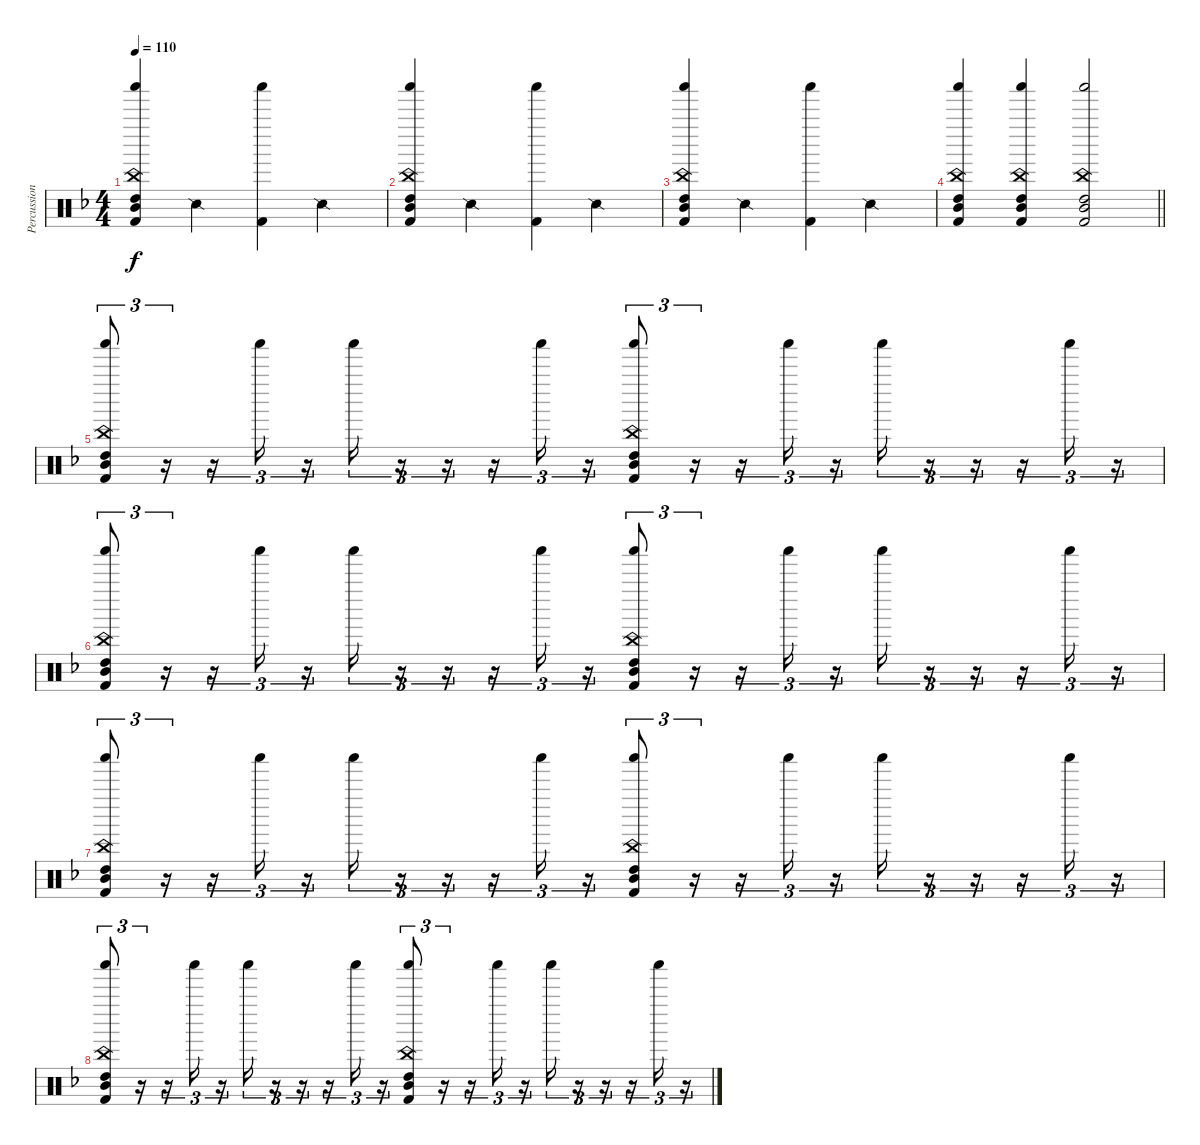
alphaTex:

\track ("Percussion" "Percussion") {instrument percussion}
\staff {score}
\articulation defaults
\ts (4 4)
\tempo 110
\clef neutral
\ks f
("Mid Tom (hit)" "China (hit)" "Shaker (hit)" "High Tom (hit)" "Kick (hit) 2").4{dy f} "Snare (side stick) 2".4 ("Shaker (hit)" "Kick (hit) 2").4 "Snare (side stick) 2".4 |
("Mid Tom (hit)" "China (hit)" "Shaker (hit)" "High Tom (hit)" "Kick (hit) 2").4 "Snare (side stick) 2".4 ("Shaker (hit)" "Kick (hit) 2").4 "Snare (side stick) 2".4 |
("Mid Tom (hit)" "China (hit)" "Shaker (hit)" "High Tom (hit)" "Kick (hit) 2").4 "Snare (side stick) 2".4 ("Shaker (hit)" "Kick (hit) 2").4 "Snare (side stick) 2".4 |
\barLineRight lightlight
("Mid Tom (hit)" "China (hit)" "Shaker (hit)" "High Tom (hit)" "Kick (hit) 2").4 ("Mid Tom (hit)" "China (hit)" "Shaker (hit)" "High Tom (hit)" "Kick (hit) 2").4 ("Mid Tom (hit)" "China (hit)" "Shaker (hit)" "High Tom (hit)" "Kick (hit) 2").2 |
\section ("" "")
("Mid Tom (hit)" "China (hit)" "Shaker (hit)" "High Tom (hit)" "Kick (hit) 2").8{tu (3 2)} r.16{tu (3 2)} r.16{tu (3 2)} "Shaker (hit)".16{tu (3 2)} r.16{tu (3 2)} "Shaker (hit)".16{tu (3 2)} r.16{tu (3 2)} r.16{tu (3 2)} r.16{tu (3 2)} "Shaker (hit)".16{tu (3 2)} r.16{tu (3 2)} ("Mid Tom (hit)" "China (hit)" "Shaker (hit)" "High Tom (hit)" "Kick (hit) 2").8{tu (3 2)} r.16{tu (3 2)} r.16{tu (3 2)} "Shaker (hit)".16{tu (3 2)} r.16{tu (3 2)} "Shaker (hit)".16{tu (3 2)} r.16{tu (3 2)} r.16{tu (3 2)} r.16{tu (3 2)} "Shaker (hit)".16{tu (3 2)} r.16{tu (3 2)} |
("Mid Tom (hit)" "China (hit)" "Shaker (hit)" "High Tom (hit)" "Kick (hit) 2").8{tu (3 2)} r.16{tu (3 2)} r.16{tu (3 2)} "Shaker (hit)".16{tu (3 2)} r.16{tu (3 2)} "Shaker (hit)".16{tu (3 2)} r.16{tu (3 2)} r.16{tu (3 2)} r.16{tu (3 2)} "Shaker (hit)".16{tu (3 2)} r.16{tu (3 2)} ("Mid Tom (hit)" "China (hit)" "Shaker (hit)" "High Tom (hit)" "Kick (hit) 2").8{tu (3 2)} r.16{tu (3 2)} r.16{tu (3 2)} "Shaker (hit)".16{tu (3 2)} r.16{tu (3 2)} "Shaker (hit)".16{tu (3 2)} r.16{tu (3 2)} r.16{tu (3 2)} r.16{tu (3 2)} "Shaker (hit)".16{tu (3 2)} r.16{tu (3 2)} |
("Mid Tom (hit)" "China (hit)" "Shaker (hit)" "High Tom (hit)" "Kick (hit) 2").8{tu (3 2)} r.16{tu (3 2)} r.16{tu (3 2)} "Shaker (hit)".16{tu (3 2)} r.16{tu (3 2)} "Shaker (hit)".16{tu (3 2)} r.16{tu (3 2)} r.16{tu (3 2)} r.16{tu (3 2)} "Shaker (hit)".16{tu (3 2)} r.16{tu (3 2)} ("Mid Tom (hit)" "China (hit)" "Shaker (hit)" "High Tom (hit)" "Kick (hit) 2").8{tu (3 2)} r.16{tu (3 2)} r.16{tu (3 2)} "Shaker (hit)".16{tu (3 2)} r.16{tu (3 2)} "Shaker (hit)".16{tu (3 2)} r.16{tu (3 2)} r.16{tu (3 2)} r.16{tu (3 2)} "Shaker (hit)".16{tu (3 2)} r.16{tu (3 2)} |
("Mid Tom (hit)" "China (hit)" "Shaker (hit)" "High Tom (hit)" "Kick (hit) 2").8{tu (3 2)} r.16{tu (3 2)} r.16{tu (3 2)} "Shaker (hit)".16{tu (3 2)} r.16{tu (3 2)} "Shaker (hit)".16{tu (3 2)} r.16{tu (3 2)} r.16{tu (3 2)} r.16{tu (3 2)} "Shaker (hit)".16{tu (3 2)} r.16{tu (3 2)} ("Mid Tom (hit)" "China (hit)" "Shaker (hit)" "High Tom (hit)" "Kick (hit) 2").8{tu (3 2)} r.16{tu (3 2)} r.16{tu (3 2)} "Shaker (hit)".16{tu (3 2)} r.16{tu (3 2)} "Shaker (hit)".16{tu (3 2)} r.16{tu (3 2)} r.16{tu (3 2)} r.16{tu (3 2)} "Shaker (hit)".16{tu (3 2)} r.16{tu (3 2)}
